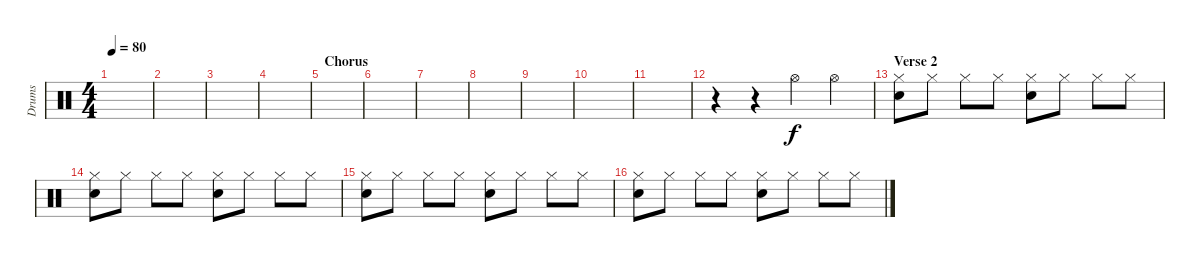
\track ("Drums" "Drums") {instrument percussion}
\staff {score}
\articulation defaults
\ts (4 4)
\tempo 80
\clef neutral
\ks c
|
|
|
|
\section ("" "Chorus")
|
|
|
|
|
|
|
r.4 r.4 "Hi-Hat (open)".4 "Hi-Hat (open)".4 |
\section ("" "Verse 2")
("Hi-Hat (closed)" "Snare (hit) 2").8 "Hi-Hat (closed)".8 "Hi-Hat (closed)".8 "Hi-Hat (closed)".8 ("Hi-Hat (closed)" "Snare (hit) 2").8 "Hi-Hat (closed)".8 "Hi-Hat (closed)".8 "Hi-Hat (closed)".8 |
("Hi-Hat (closed)" "Snare (hit) 2").8 "Hi-Hat (closed)".8 "Hi-Hat (closed)".8 "Hi-Hat (closed)".8 ("Hi-Hat (closed)" "Snare (hit) 2").8 "Hi-Hat (closed)".8 "Hi-Hat (closed)".8 "Hi-Hat (closed)".8 |
("Hi-Hat (closed)" "Snare (hit) 2").8 "Hi-Hat (closed)".8 "Hi-Hat (closed)".8 "Hi-Hat (closed)".8 ("Hi-Hat (closed)" "Snare (hit) 2").8 "Hi-Hat (closed)".8 "Hi-Hat (closed)".8 "Hi-Hat (closed)".8 |
("Hi-Hat (closed)" "Snare (hit) 2").8 "Hi-Hat (closed)".8 "Hi-Hat (closed)".8 "Hi-Hat (closed)".8 ("Hi-Hat (closed)" "Snare (hit) 2").8 "Hi-Hat (closed)".8 "Hi-Hat (closed)".8 "Hi-Hat (closed)".8
